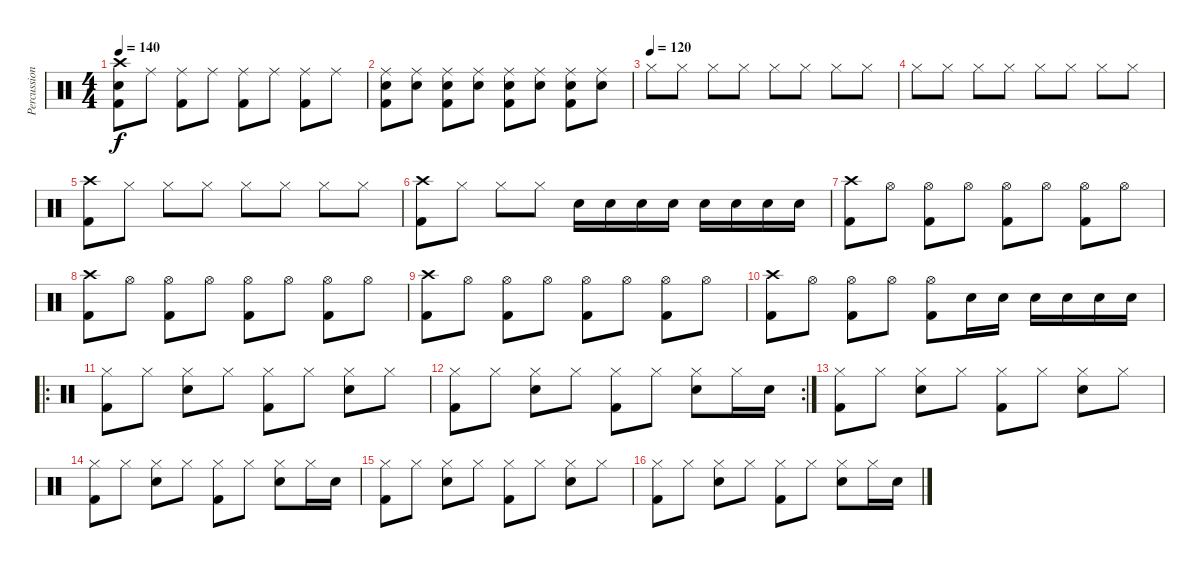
\track ("Percussion" "Percussion") {instrument percussion}
\staff {score}
\articulation defaults
\ts (4 4)
\tempo 140
\clef neutral
\ks c
("Crash high (hit)" "Electric Snare (hit)" "Kick (hit) 2").8{dy f} "Ride (middle)".8 ("Ride (middle)" "Kick (hit) 2").8 "Ride (middle)".8 ("Ride (middle)" "Kick (hit) 2").8 "Ride (middle)".8 ("Ride (middle)" "Kick (hit) 2").8 "Ride (middle)".8 |
("Electric Snare (hit)" "Ride (middle)" "Kick (hit) 2").8 ("Electric Snare (hit)" "Ride (middle)").8 ("Electric Snare (hit)" "Ride (middle)" "Kick (hit) 2").8 ("Electric Snare (hit)" "Ride (middle)").8 ("Electric Snare (hit)" "Ride (middle)" "Kick (hit) 2").8 ("Electric Snare (hit)" "Ride (middle)").8 ("Electric Snare (hit)" "Ride (middle)" "Kick (hit) 2").8 ("Electric Snare (hit)" "Ride (middle)").8 |
\tempo (120)
"Hi-Hat (closed)".8 "Hi-Hat (closed)".8 "Hi-Hat (closed)".8 "Hi-Hat (closed)".8 "Hi-Hat (closed)".8 "Hi-Hat (closed)".8 "Hi-Hat (closed)".8 "Hi-Hat (closed)".8 |
"Hi-Hat (closed)".8 "Hi-Hat (closed)".8 "Hi-Hat (closed)".8 "Hi-Hat (closed)".8 "Hi-Hat (closed)".8 "Hi-Hat (closed)".8 "Hi-Hat (closed)".8 "Hi-Hat (closed)".8 |
("Crash high (hit)" "Kick (hit) 2").8 "Hi-Hat (closed)".8 "Hi-Hat (closed)".8 "Hi-Hat (closed)".8 "Hi-Hat (closed)".8 "Hi-Hat (closed)".8 "Hi-Hat (closed)".8 "Hi-Hat (closed)".8 |
("Crash high (hit)" "Kick (hit) 2").8 "Hi-Hat (closed)".8 "Hi-Hat (closed)".8 "Hi-Hat (closed)".8 "Electric Snare (hit)".16 "Electric Snare (hit)".16 "Electric Snare (hit)".16 "Electric Snare (hit)".16 "Electric Snare (hit)".16 "Electric Snare (hit)".16 "Electric Snare (hit)".16 "Electric Snare (hit)".16 |
("Crash high (hit)" "Kick (hit) 2").8 "Hi-Hat (open)".8 ("Hi-Hat (open)" "Kick (hit) 2").8 "Hi-Hat (open)".8 ("Hi-Hat (open)" "Kick (hit) 2").8 "Hi-Hat (open)".8 ("Hi-Hat (open)" "Kick (hit) 2").8 "Hi-Hat (open)".8 |
("Crash high (hit)" "Kick (hit) 2").8 "Hi-Hat (open)".8 ("Hi-Hat (open)" "Kick (hit) 2").8 "Hi-Hat (open)".8 ("Hi-Hat (open)" "Kick (hit) 2").8 "Hi-Hat (open)".8 ("Hi-Hat (open)" "Kick (hit) 2").8 "Hi-Hat (open)".8 |
("Crash high (hit)" "Kick (hit) 2").8 "Hi-Hat (open)".8 ("Hi-Hat (open)" "Kick (hit) 2").8 "Hi-Hat (open)".8 ("Hi-Hat (open)" "Kick (hit) 2").8 "Hi-Hat (open)".8 ("Hi-Hat (open)" "Kick (hit) 2").8 "Hi-Hat (open)".8 |
("Crash high (hit)" "Kick (hit) 2").8 "Hi-Hat (open)".8 ("Hi-Hat (open)" "Kick (hit) 2").8 "Hi-Hat (open)".8 ("Hi-Hat (open)" "Kick (hit) 2").8 "Electric Snare (hit)".16 "Electric Snare (hit)".16 "Electric Snare (hit)".16 "Electric Snare (hit)".16 "Electric Snare (hit)".16 "Electric Snare (hit)".16 |
\ro
("Hi-Hat (closed)" "Kick (hit) 2").8 "Hi-Hat (closed)".8 ("Hi-Hat (closed)" "Electric Snare (hit)").8 "Hi-Hat (closed)".8 ("Hi-Hat (closed)" "Kick (hit) 2").8 "Hi-Hat (closed)".8 ("Hi-Hat (closed)" "Electric Snare (hit)").8 "Hi-Hat (closed)".8 |
\rc 2
("Hi-Hat (closed)" "Kick (hit) 2").8 "Hi-Hat (closed)".8 ("Hi-Hat (closed)" "Electric Snare (hit)").8 "Hi-Hat (closed)".8 ("Hi-Hat (closed)" "Kick (hit) 2").8 "Hi-Hat (closed)".8 ("Hi-Hat (closed)" "Electric Snare (hit)").8 "Hi-Hat (closed)".16 "Electric Snare (hit)".16 |
("Hi-Hat (closed)" "Kick (hit) 2").8 "Hi-Hat (closed)".8 ("Hi-Hat (closed)" "Electric Snare (hit)").8 "Hi-Hat (closed)".8 ("Hi-Hat (closed)" "Kick (hit) 2").8 "Hi-Hat (closed)".8 ("Hi-Hat (closed)" "Electric Snare (hit)").8 "Hi-Hat (closed)".8 |
("Hi-Hat (closed)" "Kick (hit) 2").8 "Hi-Hat (closed)".8 ("Hi-Hat (closed)" "Electric Snare (hit)").8 "Hi-Hat (closed)".8 ("Hi-Hat (closed)" "Kick (hit) 2").8 "Hi-Hat (closed)".8 ("Hi-Hat (closed)" "Electric Snare (hit)").8 "Hi-Hat (closed)".16 "Electric Snare (hit)".16 |
("Hi-Hat (closed)" "Kick (hit) 2").8 "Hi-Hat (closed)".8 ("Hi-Hat (closed)" "Electric Snare (hit)").8 "Hi-Hat (closed)".8 ("Hi-Hat (closed)" "Kick (hit) 2").8 "Hi-Hat (closed)".8 ("Hi-Hat (closed)" "Electric Snare (hit)").8 "Hi-Hat (closed)".8 |
("Hi-Hat (closed)" "Kick (hit) 2").8 "Hi-Hat (closed)".8 ("Hi-Hat (closed)" "Electric Snare (hit)").8 "Hi-Hat (closed)".8 ("Hi-Hat (closed)" "Kick (hit) 2").8 "Hi-Hat (closed)".8 ("Hi-Hat (closed)" "Electric Snare (hit)").8 "Hi-Hat (closed)".16 "Electric Snare (hit)".16
